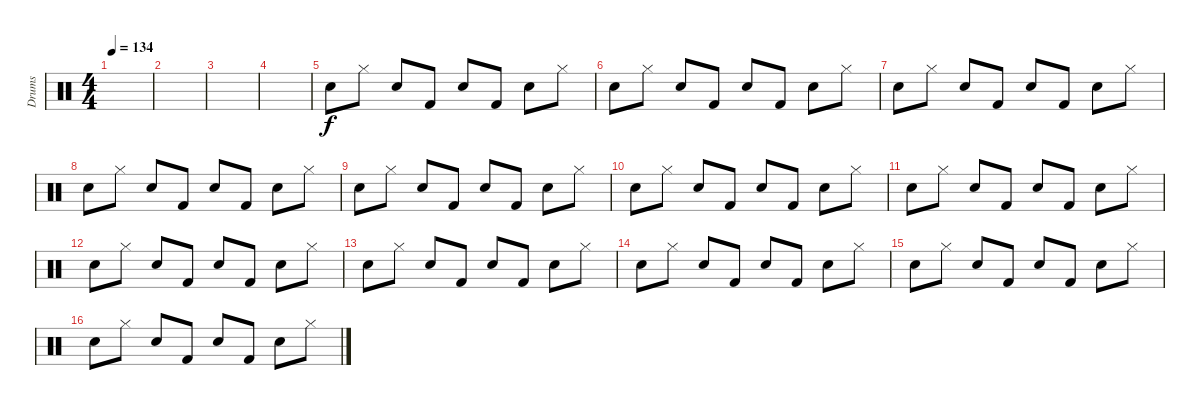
\track ("Drums" "Drums") {instrument percussion}
\staff {score}
\articulation defaults
\ts (4 4)
\tempo 134
\clef neutral
\ks c
|
|
|
|
"Electric Snare (hit)".8 "Hi-Hat (closed)".8 "Electric Snare (hit)".8 "Kick (hit) 2".8 "Electric Snare (hit)".8 "Kick (hit) 2".8 "Electric Snare (hit)".8 "Hi-Hat (closed)".8 |
"Electric Snare (hit)".8 "Hi-Hat (closed)".8 "Electric Snare (hit)".8 "Kick (hit) 2".8 "Electric Snare (hit)".8 "Kick (hit) 2".8 "Electric Snare (hit)".8 "Hi-Hat (closed)".8 |
"Electric Snare (hit)".8 "Hi-Hat (closed)".8 "Electric Snare (hit)".8 "Kick (hit) 2".8 "Electric Snare (hit)".8 "Kick (hit) 2".8 "Electric Snare (hit)".8 "Hi-Hat (closed)".8 |
"Electric Snare (hit)".8 "Hi-Hat (closed)".8 "Electric Snare (hit)".8 "Kick (hit) 2".8 "Electric Snare (hit)".8 "Kick (hit) 2".8 "Electric Snare (hit)".8 "Hi-Hat (closed)".8 |
"Electric Snare (hit)".8 "Hi-Hat (closed)".8 "Electric Snare (hit)".8 "Kick (hit) 2".8 "Electric Snare (hit)".8 "Kick (hit) 2".8 "Electric Snare (hit)".8 "Hi-Hat (closed)".8 |
"Electric Snare (hit)".8 "Hi-Hat (closed)".8 "Electric Snare (hit)".8 "Kick (hit) 2".8 "Electric Snare (hit)".8 "Kick (hit) 2".8 "Electric Snare (hit)".8 "Hi-Hat (closed)".8 |
"Electric Snare (hit)".8 "Hi-Hat (closed)".8 "Electric Snare (hit)".8 "Kick (hit) 2".8 "Electric Snare (hit)".8 "Kick (hit) 2".8 "Electric Snare (hit)".8 "Hi-Hat (closed)".8 |
"Electric Snare (hit)".8 "Hi-Hat (closed)".8 "Electric Snare (hit)".8 "Kick (hit) 2".8 "Electric Snare (hit)".8 "Kick (hit) 2".8 "Electric Snare (hit)".8 "Hi-Hat (closed)".8 |
"Electric Snare (hit)".8 "Hi-Hat (closed)".8 "Electric Snare (hit)".8 "Kick (hit) 2".8 "Electric Snare (hit)".8 "Kick (hit) 2".8 "Electric Snare (hit)".8 "Hi-Hat (closed)".8 |
"Electric Snare (hit)".8 "Hi-Hat (closed)".8 "Electric Snare (hit)".8 "Kick (hit) 2".8 "Electric Snare (hit)".8 "Kick (hit) 2".8 "Electric Snare (hit)".8 "Hi-Hat (closed)".8 |
"Electric Snare (hit)".8 "Hi-Hat (closed)".8 "Electric Snare (hit)".8 "Kick (hit) 2".8 "Electric Snare (hit)".8 "Kick (hit) 2".8 "Electric Snare (hit)".8 "Hi-Hat (closed)".8 |
"Electric Snare (hit)".8 "Hi-Hat (closed)".8 "Electric Snare (hit)".8 "Kick (hit) 2".8 "Electric Snare (hit)".8 "Kick (hit) 2".8 "Electric Snare (hit)".8 "Hi-Hat (closed)".8
